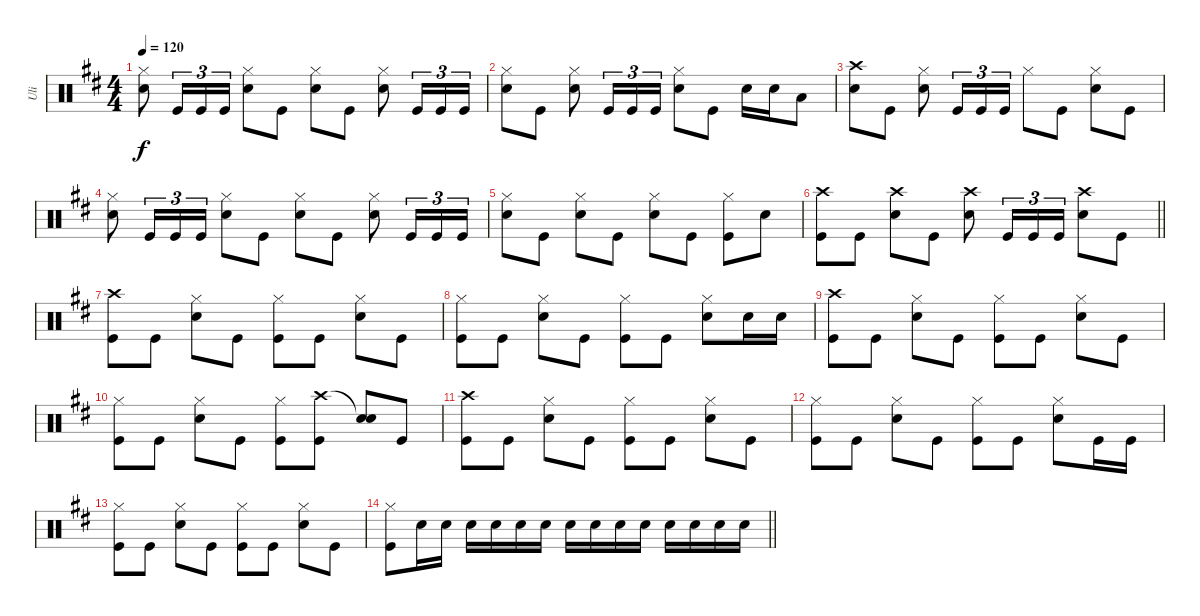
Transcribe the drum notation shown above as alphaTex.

\track ("Uli" "Uli") {instrument percussion}
\staff {score}
\articulation defaults
\ts (4 4)
\tempo 120
\clef neutral
\ks bminor
("Hi-Hat (closed)" "Snare (hit) 2").8{dy f} "Kick (hit)".16{tu (3 2)} "Kick (hit)".16{tu (3 2)} "Kick (hit)".16{tu (3 2)} ("Hi-Hat (closed)" "Snare (hit) 2").8 "Kick (hit)".8 ("Hi-Hat (closed)" "Snare (hit) 2").8 "Kick (hit)".8 ("Hi-Hat (closed)" "Snare (hit) 2").8 "Kick (hit)".16{tu (3 2)} "Kick (hit)".16{tu (3 2)} "Kick (hit)".16{tu (3 2)} |
("Hi-Hat (closed)" "Snare (hit) 2").8 "Kick (hit)".8 ("Hi-Hat (closed)" "Snare (hit) 2").8 "Kick (hit)".16{tu (3 2)} "Kick (hit)".16{tu (3 2)} "Kick (hit)".16{tu (3 2)} ("Hi-Hat (closed)" "Snare (hit) 2").8 "Kick (hit)".8 "Snare (hit) 2".16 "Snare (hit) 2".16 "Low Tom (hit)".8 |
("Crash high (hit)" "Snare (hit) 2").8 "Kick (hit)".8 ("Hi-Hat (closed)" "Snare (hit) 2").8 "Kick (hit)".16{tu (3 2)} "Kick (hit)".16{tu (3 2)} "Kick (hit)".16{tu (3 2)} "Hi-Hat (closed)".8 "Kick (hit)".8 ("Hi-Hat (closed)" "Snare (hit) 2").8 "Kick (hit)".8 |
("Hi-Hat (closed)" "Snare (hit) 2").8 "Kick (hit)".16{tu (3 2)} "Kick (hit)".16{tu (3 2)} "Kick (hit)".16{tu (3 2)} ("Hi-Hat (closed)" "Snare (hit) 2").8 "Kick (hit)".8 ("Hi-Hat (closed)" "Snare (hit) 2").8 "Kick (hit)".8 ("Hi-Hat (closed)" "Snare (hit) 2").8 "Kick (hit)".16{tu (3 2)} "Kick (hit)".16{tu (3 2)} "Kick (hit)".16{tu (3 2)} |
("Hi-Hat (closed)" "Snare (hit) 2").8 "Kick (hit)".8 ("Hi-Hat (closed)" "Snare (hit) 2").8 "Kick (hit)".8 ("Hi-Hat (closed)" "Snare (hit) 2").8 "Kick (hit)".8 ("Hi-Hat (closed)" "Kick (hit)").8 "Snare (hit) 2".8 |
\barLineRight lightlight
("Crash high (hit)" "Kick (hit)").8 "Kick (hit)".8 ("Crash high (hit)" "Snare (hit) 2").8 "Kick (hit)".8 ("Crash high (hit)" "Snare (hit) 2").8 "Kick (hit)".16{tu (3 2)} "Kick (hit)".16{tu (3 2)} "Kick (hit)".16{tu (3 2)} ("Crash high (hit)" "Snare (hit) 2").8 "Kick (hit)".8 |
("Crash high (hit)" "Kick (hit)").8 "Kick (hit)".8 ("Hi-Hat (closed)" "Snare (hit) 2").8 "Kick (hit)".8 ("Hi-Hat (closed)" "Kick (hit)").8 "Kick (hit)".8 ("Hi-Hat (closed)" "Snare (hit) 2").8 "Kick (hit)".8 |
("Hi-Hat (closed)" "Kick (hit)").8 "Kick (hit)".8 ("Hi-Hat (closed)" "Snare (hit) 2").8 "Kick (hit)".8 ("Hi-Hat (closed)" "Kick (hit)").8 "Kick (hit)".8 ("Hi-Hat (closed)" "Snare (hit) 2").8 "Snare (hit) 2".16 "Snare (hit) 2".16 |
("Crash high (hit)" "Kick (hit)").8 "Kick (hit)".8 ("Hi-Hat (closed)" "Snare (hit) 2").8 "Kick (hit)".8 ("Hi-Hat (closed)" "Kick (hit)").8 "Kick (hit)".8 ("Hi-Hat (closed)" "Snare (hit) 2").8 "Kick (hit)".8 |
("Hi-Hat (closed)" "Kick (hit)").8 "Kick (hit)".8 ("Hi-Hat (closed)" "Snare (hit) 2").8 "Kick (hit)".8 ("Hi-Hat (closed)" "Kick (hit)").8 ("Crash high (hit)" "Kick (hit)").8 ("Snare (hit)"{t} "Snare (hit) 2").8 "Kick (hit)".8 |
("Crash high (hit)" "Kick (hit)").8 "Kick (hit)".8 ("Hi-Hat (closed)" "Snare (hit) 2").8 "Kick (hit)".8 ("Hi-Hat (closed)" "Kick (hit)").8 "Kick (hit)".8 ("Hi-Hat (closed)" "Snare (hit) 2").8 "Kick (hit)".8 |
("Hi-Hat (closed)" "Kick (hit)").8 "Kick (hit)".8 ("Hi-Hat (closed)" "Snare (hit) 2").8 "Kick (hit)".8 ("Hi-Hat (closed)" "Kick (hit)").8 "Kick (hit)".8 ("Hi-Hat (closed)" "Snare (hit) 2").8 "Kick (hit)".16 "Kick (hit)".16 |
("Hi-Hat (closed)" "Kick (hit)").8 "Kick (hit)".8 ("Hi-Hat (closed)" "Snare (hit) 2").8 "Kick (hit)".8 ("Hi-Hat (closed)" "Kick (hit)").8 "Kick (hit)".8 ("Hi-Hat (closed)" "Snare (hit) 2").8 "Kick (hit)".8 |
\barLineRight lightlight
("Hi-Hat (closed)" "Kick (hit)").8 "Snare (hit) 2".16 "Snare (hit) 2".16 "Snare (hit) 2".16 "Snare (hit) 2".16 "Snare (hit) 2".16 "Snare (hit) 2".16 "Snare (hit) 2".16 "Snare (hit) 2".16 "Snare (hit) 2".16 "Snare (hit) 2".16 "Snare (hit) 2".16 "Snare (hit) 2".16 "Snare (hit) 2".16 "Snare (hit) 2".16
